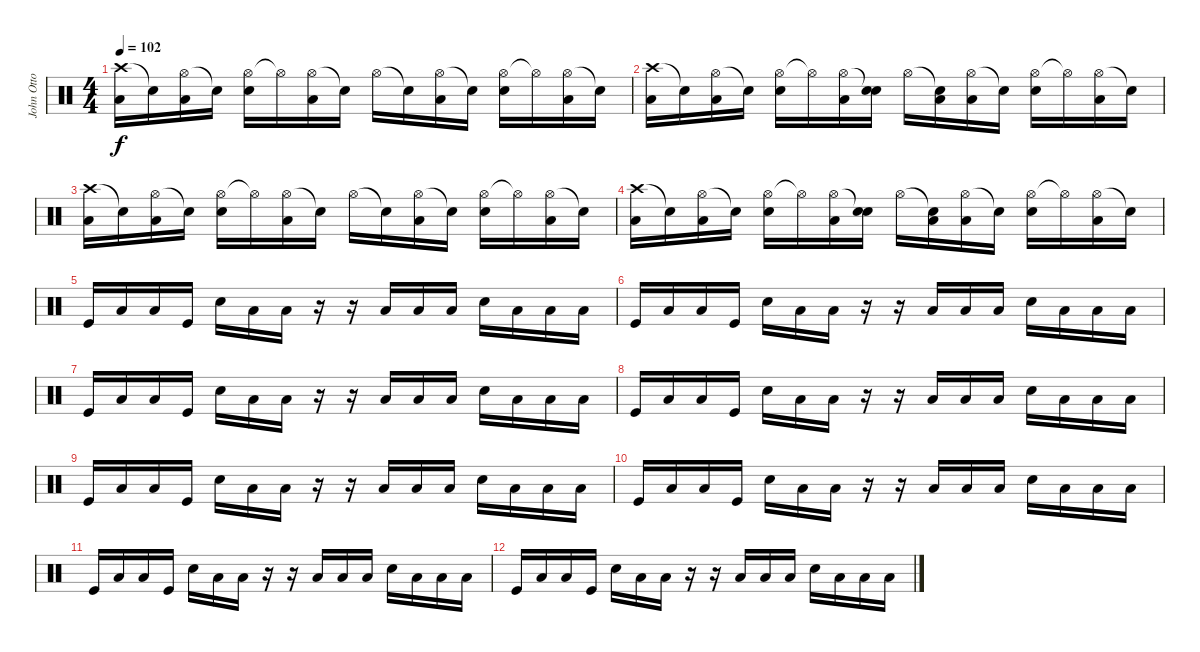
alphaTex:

\track ("John Otto (2nd Drums)" "John Otto ") {instrument percussion}
\staff {score}
\articulation defaults
\ts (4 4)
\tempo 102
\clef neutral
\ks c
("Crash high (hit)" "Low Tom (hit)").16{dy f} "Snare (hit)"{t}.16 ("Hi-Hat (open)" "Low Tom (hit)").16 "Snare (hit)"{t}.16 ("Hi-Hat (open)" "Snare (hit) 2").16 "Hi-Hat (open)"{t}.16 ("Hi-Hat (open)" "Low Tom (hit)").16 "Snare (hit)"{t}.16 "Hi-Hat (open)".16 "Snare (hit)"{t}.16 ("Hi-Hat (open)" "Low Tom (hit)").16 "Snare (hit)"{t}.16 ("Hi-Hat (open)" "Snare (hit) 2").16 "Hi-Hat (open)"{t}.16 ("Hi-Hat (open)" "Low Tom (hit)").16 "Snare (hit)"{t}.16 |
("Crash high (hit)" "Low Tom (hit)").16 "Snare (hit)"{t}.16 ("Hi-Hat (open)" "Low Tom (hit)").16 "Snare (hit)"{t}.16 ("Hi-Hat (open)" "Snare (hit) 2").16 "Hi-Hat (open)"{t}.16 ("Hi-Hat (open)" "Low Tom (hit)").16 ("Snare (hit)"{t} "Snare (hit) 2").16 "Hi-Hat (open)".16 ("Snare (hit)"{t} "Low Tom (hit)").16 ("Hi-Hat (open)" "Low Tom (hit)").16 "Snare (hit)"{t}.16 ("Hi-Hat (open)" "Snare (hit) 2").16 "Hi-Hat (open)"{t}.16 ("Hi-Hat (open)" "Low Tom (hit)").16 "Snare (hit)"{t}.16 |
("Crash high (hit)" "Low Tom (hit)").16 "Snare (hit)"{t}.16 ("Hi-Hat (open)" "Low Tom (hit)").16 "Snare (hit)"{t}.16 ("Hi-Hat (open)" "Snare (hit) 2").16 "Hi-Hat (open)"{t}.16 ("Hi-Hat (open)" "Low Tom (hit)").16 "Snare (hit)"{t}.16 "Hi-Hat (open)".16 "Snare (hit)"{t}.16 ("Hi-Hat (open)" "Low Tom (hit)").16 "Snare (hit)"{t}.16 ("Hi-Hat (open)" "Snare (hit) 2").16 "Hi-Hat (open)"{t}.16 ("Hi-Hat (open)" "Low Tom (hit)").16 "Snare (hit)"{t}.16 |
("Crash high (hit)" "Low Tom (hit)").16 "Snare (hit)"{t}.16 ("Hi-Hat (open)" "Low Tom (hit)").16 "Snare (hit)"{t}.16 ("Hi-Hat (open)" "Snare (hit) 2").16 "Hi-Hat (open)"{t}.16 ("Hi-Hat (open)" "Low Tom (hit)").16 ("Snare (hit)"{t} "Snare (hit) 2").16 "Hi-Hat (open)".16 ("Snare (hit)"{t} "Low Tom (hit)").16 ("Hi-Hat (open)" "Low Tom (hit)").16 "Snare (hit)"{t}.16 ("Hi-Hat (open)" "Snare (hit) 2").16 "Hi-Hat (open)"{t}.16 ("Hi-Hat (open)" "Low Tom (hit)").16 "Snare (hit)"{t}.16 |
"Kick (hit)".16 "Low Tom (hit)".16 "Low Tom (hit)".16 "Kick (hit)".16 "Snare (hit) 2".16 "Low Tom (hit)".16 "Low Tom (hit)".16 r.16 r.16 "Low Tom (hit)".16 "Low Tom (hit)".16 "Low Tom (hit)".16 "Snare (hit) 2".16 "Low Tom (hit)".16 "Low Tom (hit)".16 "Low Tom (hit)".16 |
"Kick (hit)".16 "Low Tom (hit)".16 "Low Tom (hit)".16 "Kick (hit)".16 "Snare (hit) 2".16 "Low Tom (hit)".16 "Low Tom (hit)".16 r.16 r.16 "Low Tom (hit)".16 "Low Tom (hit)".16 "Low Tom (hit)".16 "Snare (hit) 2".16 "Low Tom (hit)".16 "Low Tom (hit)".16 "Low Tom (hit)".16 |
"Kick (hit)".16{volume 11} "Low Tom (hit)".16 "Low Tom (hit)".16 "Kick (hit)".16 "Snare (hit) 2".16 "Low Tom (hit)".16 "Low Tom (hit)".16 r.16 r.16 "Low Tom (hit)".16 "Low Tom (hit)".16 "Low Tom (hit)".16 "Snare (hit) 2".16 "Low Tom (hit)".16 "Low Tom (hit)".16 "Low Tom (hit)".16 |
"Kick (hit)".16 "Low Tom (hit)".16 "Low Tom (hit)".16 "Kick (hit)".16 "Snare (hit) 2".16 "Low Tom (hit)".16 "Low Tom (hit)".16 r.16 r.16 "Low Tom (hit)".16 "Low Tom (hit)".16 "Low Tom (hit)".16 "Snare (hit) 2".16 "Low Tom (hit)".16 "Low Tom (hit)".16 "Low Tom (hit)".16 |
"Kick (hit)".16{volume 8} "Low Tom (hit)".16 "Low Tom (hit)".16 "Kick (hit)".16 "Snare (hit) 2".16 "Low Tom (hit)".16 "Low Tom (hit)".16 r.16 r.16 "Low Tom (hit)".16 "Low Tom (hit)".16 "Low Tom (hit)".16 "Snare (hit) 2".16 "Low Tom (hit)".16 "Low Tom (hit)".16 "Low Tom (hit)".16 |
"Kick (hit)".16 "Low Tom (hit)".16 "Low Tom (hit)".16 "Kick (hit)".16 "Snare (hit) 2".16 "Low Tom (hit)".16 "Low Tom (hit)".16 r.16 r.16 "Low Tom (hit)".16 "Low Tom (hit)".16 "Low Tom (hit)".16 "Snare (hit) 2".16 "Low Tom (hit)".16 "Low Tom (hit)".16 "Low Tom (hit)".16 |
"Kick (hit)".16{volume 4} "Low Tom (hit)".16 "Low Tom (hit)".16 "Kick (hit)".16 "Snare (hit) 2".16 "Low Tom (hit)".16 "Low Tom (hit)".16 r.16 r.16 "Low Tom (hit)".16 "Low Tom (hit)".16 "Low Tom (hit)".16 "Snare (hit) 2".16 "Low Tom (hit)".16 "Low Tom (hit)".16 "Low Tom (hit)".16 |
"Kick (hit)".16 "Low Tom (hit)".16 "Low Tom (hit)".16 "Kick (hit)".16 "Snare (hit) 2".16 "Low Tom (hit)".16 "Low Tom (hit)".16 r.16 r.16 "Low Tom (hit)".16 "Low Tom (hit)".16 "Low Tom (hit)".16 "Snare (hit) 2".16 "Low Tom (hit)".16 "Low Tom (hit)".16 "Low Tom (hit)".16
